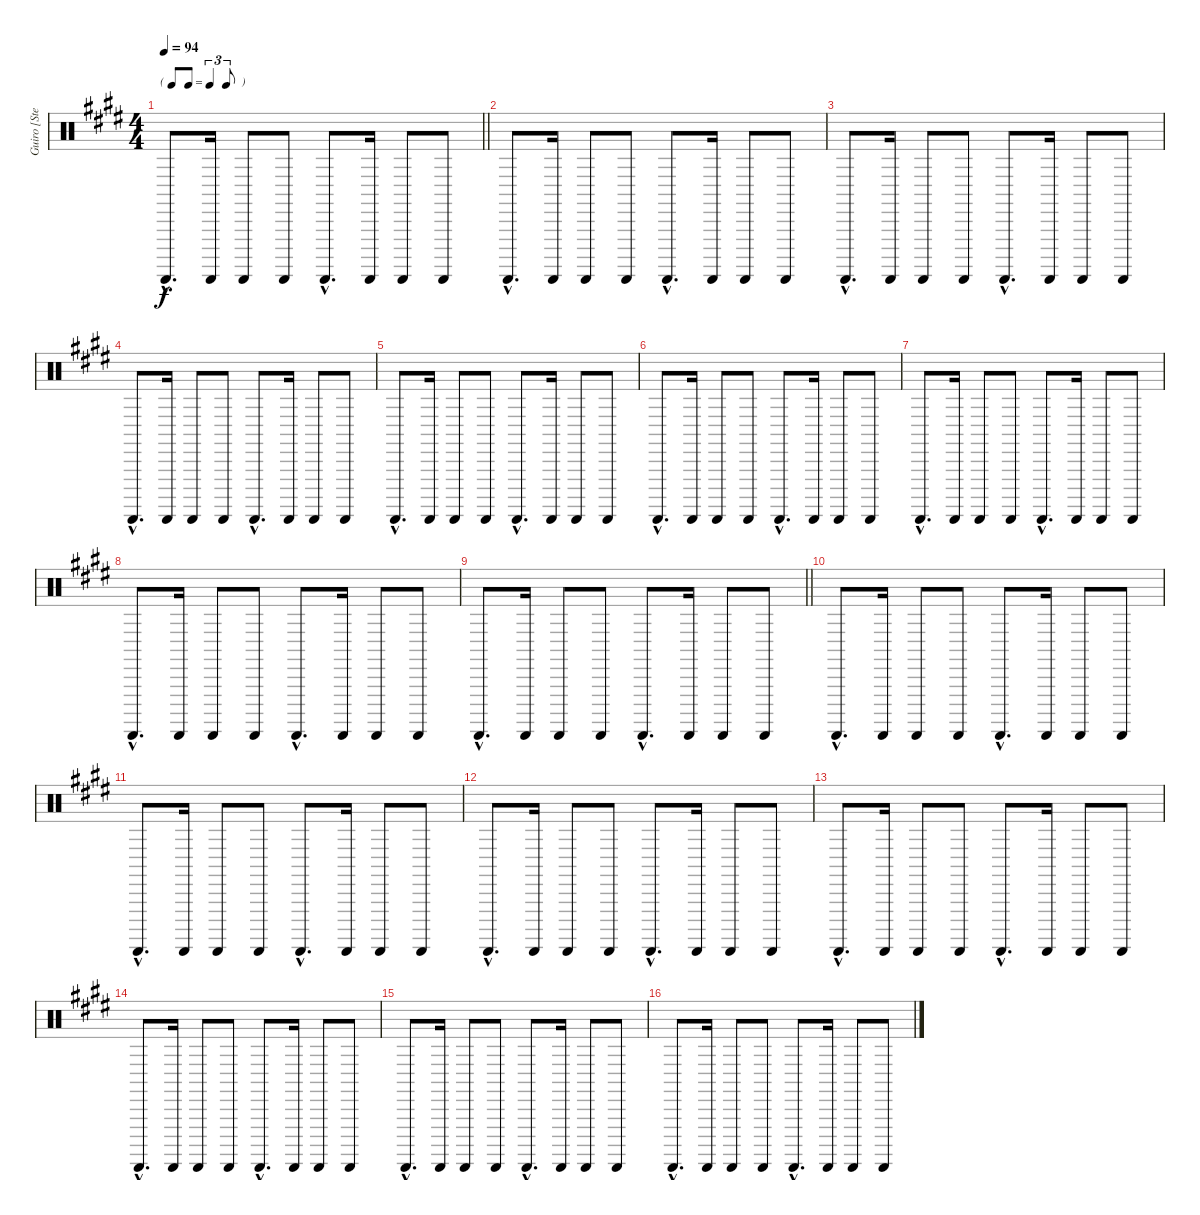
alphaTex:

\track ("Guiro [Steve Gadd]" "Guiro [Ste") {instrument percussion}
\staff {score}
\articulation defaults
\ts (4 4)
\tf triplet8th
\tempo 94
\clef neutral
\barLineRight lightlight
\ks e "Guiro (scrap-return)"{hac}.8{d dy f} "Guiro (scrap-return)".16 "Guiro (scrap-return)".8 "Guiro (scrap-return)".8 "Guiro (scrap-return)"{hac}.8{d} "Guiro (scrap-return)".16 "Guiro (scrap-return)".8 "Guiro (scrap-return)".8
|
"Guiro (scrap-return)"{hac}.8{d} "Guiro (scrap-return)".16 "Guiro (scrap-return)".8 "Guiro (scrap-return)".8 "Guiro (scrap-return)"{hac}.8{d} "Guiro (scrap-return)".16 "Guiro (scrap-return)".8 "Guiro (scrap-return)".8 |
"Guiro (scrap-return)"{hac}.8{d} "Guiro (scrap-return)".16 "Guiro (scrap-return)".8 "Guiro (scrap-return)".8 "Guiro (scrap-return)"{hac}.8{d} "Guiro (scrap-return)".16 "Guiro (scrap-return)".8 "Guiro (scrap-return)".8 |
"Guiro (scrap-return)"{hac}.8{d} "Guiro (scrap-return)".16 "Guiro (scrap-return)".8 "Guiro (scrap-return)".8 "Guiro (scrap-return)"{hac}.8{d} "Guiro (scrap-return)".16 "Guiro (scrap-return)".8 "Guiro (scrap-return)".8 |
"Guiro (scrap-return)"{hac}.8{d} "Guiro (scrap-return)".16 "Guiro (scrap-return)".8 "Guiro (scrap-return)".8 "Guiro (scrap-return)"{hac}.8{d} "Guiro (scrap-return)".16 "Guiro (scrap-return)".8 "Guiro (scrap-return)".8 |
"Guiro (scrap-return)"{hac}.8{d} "Guiro (scrap-return)".16 "Guiro (scrap-return)".8 "Guiro (scrap-return)".8 "Guiro (scrap-return)"{hac}.8{d} "Guiro (scrap-return)".16 "Guiro (scrap-return)".8 "Guiro (scrap-return)".8 |
"Guiro (scrap-return)"{hac}.8{d} "Guiro (scrap-return)".16 "Guiro (scrap-return)".8 "Guiro (scrap-return)".8 "Guiro (scrap-return)"{hac}.8{d} "Guiro (scrap-return)".16 "Guiro (scrap-return)".8 "Guiro (scrap-return)".8 |
"Guiro (scrap-return)"{hac}.8{d} "Guiro (scrap-return)".16 "Guiro (scrap-return)".8 "Guiro (scrap-return)".8 "Guiro (scrap-return)"{hac}.8{d} "Guiro (scrap-return)".16 "Guiro (scrap-return)".8 "Guiro (scrap-return)".8 |
\barLineRight lightlight "Guiro (scrap-return)"{hac}.8{d} "Guiro (scrap-return)".16 "Guiro (scrap-return)".8 "Guiro (scrap-return)".8 "Guiro (scrap-return)"{hac}.8{d} "Guiro (scrap-return)".16 "Guiro (scrap-return)".8 "Guiro (scrap-return)".8
|
"Guiro (scrap-return)"{hac}.8{d} "Guiro (scrap-return)".16 "Guiro (scrap-return)".8 "Guiro (scrap-return)".8 "Guiro (scrap-return)"{hac}.8{d} "Guiro (scrap-return)".16 "Guiro (scrap-return)".8 "Guiro (scrap-return)".8 |
"Guiro (scrap-return)"{hac}.8{d} "Guiro (scrap-return)".16 "Guiro (scrap-return)".8 "Guiro (scrap-return)".8 "Guiro (scrap-return)"{hac}.8{d} "Guiro (scrap-return)".16 "Guiro (scrap-return)".8 "Guiro (scrap-return)".8 |
"Guiro (scrap-return)"{hac}.8{d} "Guiro (scrap-return)".16 "Guiro (scrap-return)".8 "Guiro (scrap-return)".8 "Guiro (scrap-return)"{hac}.8{d} "Guiro (scrap-return)".16 "Guiro (scrap-return)".8 "Guiro (scrap-return)".8 |
"Guiro (scrap-return)"{hac}.8{d} "Guiro (scrap-return)".16 "Guiro (scrap-return)".8 "Guiro (scrap-return)".8 "Guiro (scrap-return)"{hac}.8{d} "Guiro (scrap-return)".16 "Guiro (scrap-return)".8 "Guiro (scrap-return)".8 |
"Guiro (scrap-return)"{hac}.8{d} "Guiro (scrap-return)".16 "Guiro (scrap-return)".8 "Guiro (scrap-return)".8 "Guiro (scrap-return)"{hac}.8{d} "Guiro (scrap-return)".16 "Guiro (scrap-return)".8 "Guiro (scrap-return)".8 |
"Guiro (scrap-return)"{hac}.8{d} "Guiro (scrap-return)".16 "Guiro (scrap-return)".8 "Guiro (scrap-return)".8 "Guiro (scrap-return)"{hac}.8{d} "Guiro (scrap-return)".16 "Guiro (scrap-return)".8 "Guiro (scrap-return)".8 |
"Guiro (scrap-return)"{hac}.8{d} "Guiro (scrap-return)".16 "Guiro (scrap-return)".8 "Guiro (scrap-return)".8 "Guiro (scrap-return)"{hac}.8{d} "Guiro (scrap-return)".16 "Guiro (scrap-return)".8 "Guiro (scrap-return)".8
